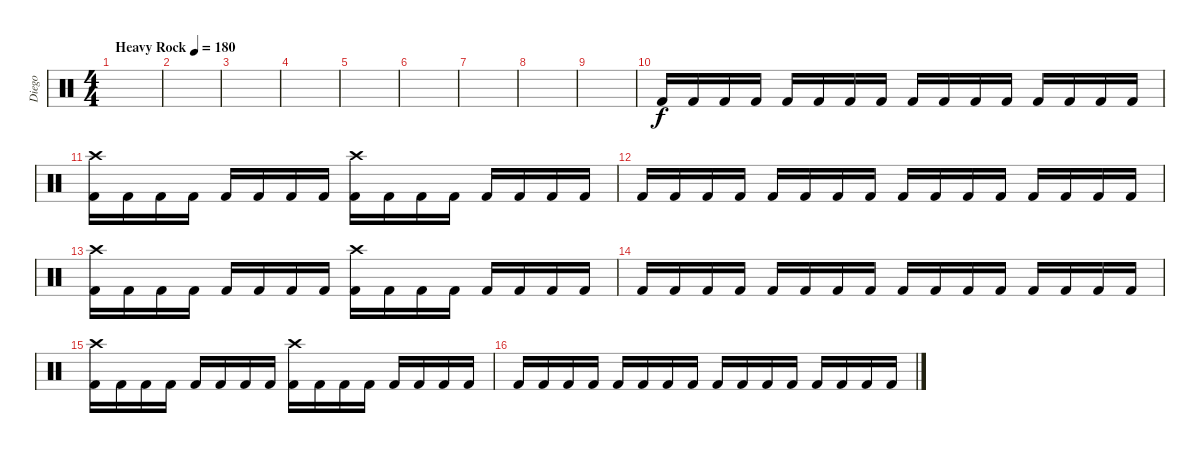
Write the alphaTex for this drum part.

\track ("Diego" "Diego") {instrument percussion}
\staff {score}
\articulation defaults
\ts (4 4)
\tempo (180 "Heavy Rock")
\clef neutral
\ks c
|
|
|
|
|
|
|
|
|
"Kick (hit) 2".16 "Kick (hit) 2".16 "Kick (hit) 2".16 "Kick (hit) 2".16 "Kick (hit) 2".16 "Kick (hit) 2".16 "Kick (hit) 2".16 "Kick (hit) 2".16 "Kick (hit) 2".16 "Kick (hit) 2".16 "Kick (hit) 2".16 "Kick (hit) 2".16 "Kick (hit) 2".16 "Kick (hit) 2".16 "Kick (hit) 2".16 "Kick (hit) 2".16 |
("Crash high (hit)" "Kick (hit) 2").16 "Kick (hit) 2".16 "Kick (hit) 2".16 "Kick (hit) 2".16 "Kick (hit) 2".16 "Kick (hit) 2".16 "Kick (hit) 2".16 "Kick (hit) 2".16 ("Crash high (hit)" "Kick (hit) 2").16 "Kick (hit) 2".16 "Kick (hit) 2".16 "Kick (hit) 2".16 "Kick (hit) 2".16 "Kick (hit) 2".16 "Kick (hit) 2".16 "Kick (hit) 2".16 |
"Kick (hit) 2".16 "Kick (hit) 2".16 "Kick (hit) 2".16 "Kick (hit) 2".16 "Kick (hit) 2".16 "Kick (hit) 2".16 "Kick (hit) 2".16 "Kick (hit) 2".16 "Kick (hit) 2".16 "Kick (hit) 2".16 "Kick (hit) 2".16 "Kick (hit) 2".16 "Kick (hit) 2".16 "Kick (hit) 2".16 "Kick (hit) 2".16 "Kick (hit) 2".16 |
("Crash high (hit)" "Kick (hit) 2").16 "Kick (hit) 2".16 "Kick (hit) 2".16 "Kick (hit) 2".16 "Kick (hit) 2".16 "Kick (hit) 2".16 "Kick (hit) 2".16 "Kick (hit) 2".16 ("Crash high (hit)" "Kick (hit) 2").16 "Kick (hit) 2".16 "Kick (hit) 2".16 "Kick (hit) 2".16 "Kick (hit) 2".16 "Kick (hit) 2".16 "Kick (hit) 2".16 "Kick (hit) 2".16 |
"Kick (hit) 2".16 "Kick (hit) 2".16 "Kick (hit) 2".16 "Kick (hit) 2".16 "Kick (hit) 2".16 "Kick (hit) 2".16 "Kick (hit) 2".16 "Kick (hit) 2".16 "Kick (hit) 2".16 "Kick (hit) 2".16 "Kick (hit) 2".16 "Kick (hit) 2".16 "Kick (hit) 2".16 "Kick (hit) 2".16 "Kick (hit) 2".16 "Kick (hit) 2".16 |
("Crash high (hit)" "Kick (hit) 2").16 "Kick (hit) 2".16 "Kick (hit) 2".16 "Kick (hit) 2".16 "Kick (hit) 2".16 "Kick (hit) 2".16 "Kick (hit) 2".16 "Kick (hit) 2".16 ("Crash high (hit)" "Kick (hit) 2").16 "Kick (hit) 2".16 "Kick (hit) 2".16 "Kick (hit) 2".16 "Kick (hit) 2".16 "Kick (hit) 2".16 "Kick (hit) 2".16 "Kick (hit) 2".16 |
"Kick (hit) 2".16 "Kick (hit) 2".16 "Kick (hit) 2".16 "Kick (hit) 2".16 "Kick (hit) 2".16 "Kick (hit) 2".16 "Kick (hit) 2".16 "Kick (hit) 2".16 "Kick (hit) 2".16 "Kick (hit) 2".16 "Kick (hit) 2".16 "Kick (hit) 2".16 "Kick (hit) 2".16 "Kick (hit) 2".16 "Kick (hit) 2".16 "Kick (hit) 2".16
